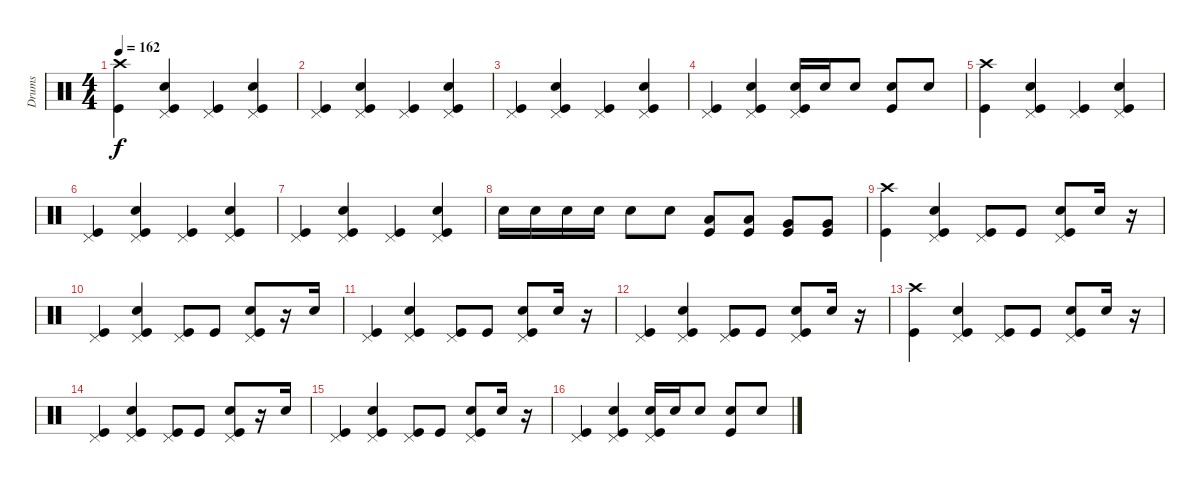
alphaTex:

\track ("Drums" "Drums") {instrument percussion}
\staff {score}
\articulation defaults
\ts (4 4)
\tempo 162
\clef neutral
\ks c
("Kick (hit)" "Crash high (hit)").4{dy f} ("Kick (hit)" "Snare (hit) 2" "Pedal Hi-Hat (hit)").4 ("Kick (hit)" "Pedal Hi-Hat (hit)").4 ("Kick (hit)" "Snare (hit) 2" "Pedal Hi-Hat (hit)").4 |
("Kick (hit)" "Pedal Hi-Hat (hit)").4 ("Kick (hit)" "Snare (hit) 2" "Pedal Hi-Hat (hit)").4 ("Kick (hit)" "Pedal Hi-Hat (hit)").4 ("Kick (hit)" "Snare (hit) 2" "Pedal Hi-Hat (hit)").4 |
("Kick (hit)" "Pedal Hi-Hat (hit)").4 ("Kick (hit)" "Snare (hit) 2" "Pedal Hi-Hat (hit)").4 ("Kick (hit)" "Pedal Hi-Hat (hit)").4 ("Kick (hit)" "Snare (hit) 2" "Pedal Hi-Hat (hit)").4 |
("Kick (hit)" "Pedal Hi-Hat (hit)").4 ("Kick (hit)" "Snare (hit) 2" "Pedal Hi-Hat (hit)").4 ("Kick (hit)" "Snare (hit) 2" "Pedal Hi-Hat (hit)").16 "Snare (hit) 2".16 "Snare (hit) 2".8 ("Kick (hit)" "Snare (hit) 2").8 "Snare (hit) 2".8 |
("Kick (hit)" "Crash high (hit)").4 ("Kick (hit)" "Snare (hit) 2" "Pedal Hi-Hat (hit)").4 ("Kick (hit)" "Pedal Hi-Hat (hit)").4 ("Kick (hit)" "Snare (hit) 2" "Pedal Hi-Hat (hit)").4 |
("Kick (hit)" "Pedal Hi-Hat (hit)").4 ("Kick (hit)" "Snare (hit) 2" "Pedal Hi-Hat (hit)").4 ("Kick (hit)" "Pedal Hi-Hat (hit)").4 ("Kick (hit)" "Snare (hit) 2" "Pedal Hi-Hat (hit)").4 |
("Kick (hit)" "Pedal Hi-Hat (hit)").4 ("Kick (hit)" "Snare (hit) 2" "Pedal Hi-Hat (hit)").4 ("Kick (hit)" "Pedal Hi-Hat (hit)").4 ("Kick (hit)" "Snare (hit) 2" "Pedal Hi-Hat (hit)").4 |
"Snare (hit) 2".16 "Snare (hit) 2".16 "Snare (hit) 2".16 "Snare (hit) 2".16 "Snare (hit) 2".8 "Snare (hit) 2".8 ("Kick (hit)" "Low Tom (hit)").8 ("Kick (hit)" "Low Tom (hit)").8 ("Kick (hit)" "Very Low Tom (hit)").8 ("Kick (hit)" "Very Low Tom (hit)").8 |
("Kick (hit)" "Crash high (hit)").4 ("Kick (hit)" "Snare (hit) 2" "Pedal Hi-Hat (hit)").4 ("Kick (hit)" "Pedal Hi-Hat (hit)").8 "Kick (hit)".8 ("Kick (hit)" "Snare (hit) 2" "Pedal Hi-Hat (hit)").8 "Snare (hit) 2".16 r.16 |
("Kick (hit)" "Pedal Hi-Hat (hit)").4 ("Kick (hit)" "Snare (hit) 2" "Pedal Hi-Hat (hit)").4 ("Kick (hit)" "Pedal Hi-Hat (hit)").8 "Kick (hit)".8 ("Kick (hit)" "Snare (hit) 2" "Pedal Hi-Hat (hit)").8 r.16 "Snare (hit) 2".16 |
("Kick (hit)" "Pedal Hi-Hat (hit)").4 ("Kick (hit)" "Snare (hit) 2" "Pedal Hi-Hat (hit)").4 ("Kick (hit)" "Pedal Hi-Hat (hit)").8 "Kick (hit)".8 ("Kick (hit)" "Snare (hit) 2" "Pedal Hi-Hat (hit)").8 "Snare (hit) 2".16 r.16 |
("Kick (hit)" "Pedal Hi-Hat (hit)").4 ("Kick (hit)" "Snare (hit) 2" "Pedal Hi-Hat (hit)").4 ("Kick (hit)" "Pedal Hi-Hat (hit)").8 "Kick (hit)".8 ("Kick (hit)" "Snare (hit) 2" "Pedal Hi-Hat (hit)").8 "Snare (hit) 2".16 r.16 |
("Kick (hit)" "Crash high (hit)").4 ("Kick (hit)" "Snare (hit) 2" "Pedal Hi-Hat (hit)").4 ("Kick (hit)" "Pedal Hi-Hat (hit)").8 "Kick (hit)".8 ("Kick (hit)" "Snare (hit) 2" "Pedal Hi-Hat (hit)").8 "Snare (hit) 2".16 r.16 |
("Kick (hit)" "Pedal Hi-Hat (hit)").4 ("Kick (hit)" "Snare (hit) 2" "Pedal Hi-Hat (hit)").4 ("Kick (hit)" "Pedal Hi-Hat (hit)").8 "Kick (hit)".8 ("Kick (hit)" "Snare (hit) 2" "Pedal Hi-Hat (hit)").8 r.16 "Snare (hit) 2".16 |
("Kick (hit)" "Pedal Hi-Hat (hit)").4 ("Kick (hit)" "Snare (hit) 2" "Pedal Hi-Hat (hit)").4 ("Kick (hit)" "Pedal Hi-Hat (hit)").8 "Kick (hit)".8 ("Kick (hit)" "Snare (hit) 2" "Pedal Hi-Hat (hit)").8 "Snare (hit) 2".16 r.16 |
("Kick (hit)" "Pedal Hi-Hat (hit)").4 ("Kick (hit)" "Snare (hit) 2" "Pedal Hi-Hat (hit)").4 ("Kick (hit)" "Snare (hit) 2" "Pedal Hi-Hat (hit)").16 "Snare (hit) 2".16 "Snare (hit) 2".8 ("Kick (hit)" "Snare (hit) 2").8 "Snare (hit) 2".8
